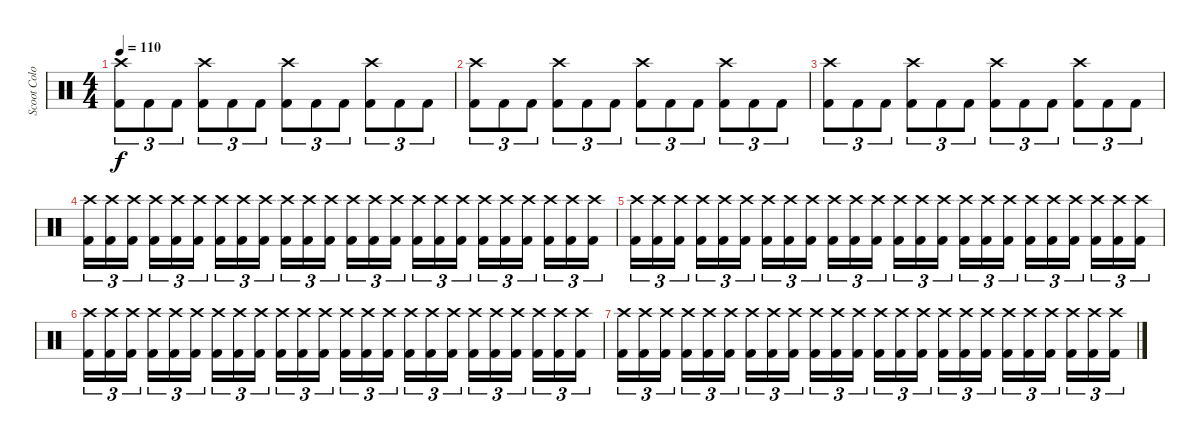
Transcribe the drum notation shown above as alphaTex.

\track ("Scoot Colombus" "Scoot Colo") {instrument percussion}
\staff {score}
\articulation defaults
\ts (4 4)
\tempo 110
\clef neutral
\ks c
("Crash high (hit)" "Kick (hit) 2").8{tu (3 2) dy f} "Kick (hit) 2".8{tu (3 2)} "Kick (hit) 2".8{tu (3 2)} ("Crash high (hit)" "Kick (hit) 2").8{tu (3 2)} "Kick (hit) 2".8{tu (3 2)} "Kick (hit) 2".8{tu (3 2)} ("Crash high (hit)" "Kick (hit) 2").8{tu (3 2)} "Kick (hit) 2".8{tu (3 2)} "Kick (hit) 2".8{tu (3 2)} ("Crash high (hit)" "Kick (hit) 2").8{tu (3 2)} "Kick (hit) 2".8{tu (3 2)} "Kick (hit) 2".8{tu (3 2)} |
("Crash high (hit)" "Kick (hit) 2").8{tu (3 2)} "Kick (hit) 2".8{tu (3 2)} "Kick (hit) 2".8{tu (3 2)} ("Crash high (hit)" "Kick (hit) 2").8{tu (3 2)} "Kick (hit) 2".8{tu (3 2)} "Kick (hit) 2".8{tu (3 2)} ("Crash high (hit)" "Kick (hit) 2").8{tu (3 2)} "Kick (hit) 2".8{tu (3 2)} "Kick (hit) 2".8{tu (3 2)} ("Crash high (hit)" "Kick (hit) 2").8{tu (3 2)} "Kick (hit) 2".8{tu (3 2)} "Kick (hit) 2".8{tu (3 2)} |
("Crash high (hit)" "Kick (hit) 2").8{tu (3 2)} "Kick (hit) 2".8{tu (3 2)} "Kick (hit) 2".8{tu (3 2)} ("Crash high (hit)" "Kick (hit) 2").8{tu (3 2)} "Kick (hit) 2".8{tu (3 2)} "Kick (hit) 2".8{tu (3 2)} ("Crash high (hit)" "Kick (hit) 2").8{tu (3 2)} "Kick (hit) 2".8{tu (3 2)} "Kick (hit) 2".8{tu (3 2)} ("Crash high (hit)" "Kick (hit) 2").8{tu (3 2)} "Kick (hit) 2".8{tu (3 2)} "Kick (hit) 2".8{tu (3 2)} |
("Crash high (hit)" "Kick (hit) 2").16{tu (3 2)} ("Crash high (hit)" "Kick (hit) 2").16{tu (3 2)} ("Crash high (hit)" "Kick (hit) 2").16{tu (3 2) beam splitsecondary} ("Crash high (hit)" "Kick (hit) 2").16{tu (3 2)} ("Crash high (hit)" "Kick (hit) 2").16{tu (3 2)} ("Crash high (hit)" "Kick (hit) 2").16{tu (3 2)} ("Crash high (hit)" "Kick (hit) 2").16{tu (3 2)} ("Crash high (hit)" "Kick (hit) 2").16{tu (3 2)} ("Crash high (hit)" "Kick (hit) 2").16{tu (3 2) beam splitsecondary} ("Crash high (hit)" "Kick (hit) 2").16{tu (3 2)} ("Crash high (hit)" "Kick (hit) 2").16{tu (3 2)} ("Crash high (hit)" "Kick (hit) 2").16{tu (3 2)} ("Crash high (hit)" "Kick (hit) 2").16{tu (3 2)} ("Crash high (hit)" "Kick (hit) 2").16{tu (3 2)} ("Crash high (hit)" "Kick (hit) 2").16{tu (3 2) beam splitsecondary} ("Crash high (hit)" "Kick (hit) 2").16{tu (3 2)} ("Crash high (hit)" "Kick (hit) 2").16{tu (3 2)} ("Crash high (hit)" "Kick (hit) 2").16{tu (3 2)} ("Crash high (hit)" "Kick (hit) 2").16{tu (3 2)} ("Crash high (hit)" "Kick (hit) 2").16{tu (3 2)} ("Crash high (hit)" "Kick (hit) 2").16{tu (3 2) beam splitsecondary} ("Crash high (hit)" "Kick (hit) 2").16{tu (3 2)} ("Crash high (hit)" "Kick (hit) 2").16{tu (3 2)} ("Crash high (hit)" "Kick (hit) 2").16{tu (3 2)} |
("Crash high (hit)" "Kick (hit) 2").16{tu (3 2)} ("Crash high (hit)" "Kick (hit) 2").16{tu (3 2)} ("Crash high (hit)" "Kick (hit) 2").16{tu (3 2) beam splitsecondary} ("Crash high (hit)" "Kick (hit) 2").16{tu (3 2)} ("Crash high (hit)" "Kick (hit) 2").16{tu (3 2)} ("Crash high (hit)" "Kick (hit) 2").16{tu (3 2)} ("Crash high (hit)" "Kick (hit) 2").16{tu (3 2)} ("Crash high (hit)" "Kick (hit) 2").16{tu (3 2)} ("Crash high (hit)" "Kick (hit) 2").16{tu (3 2) beam splitsecondary} ("Crash high (hit)" "Kick (hit) 2").16{tu (3 2)} ("Crash high (hit)" "Kick (hit) 2").16{tu (3 2)} ("Crash high (hit)" "Kick (hit) 2").16{tu (3 2)} ("Crash high (hit)" "Kick (hit) 2").16{tu (3 2)} ("Crash high (hit)" "Kick (hit) 2").16{tu (3 2)} ("Crash high (hit)" "Kick (hit) 2").16{tu (3 2) beam splitsecondary} ("Crash high (hit)" "Kick (hit) 2").16{tu (3 2)} ("Crash high (hit)" "Kick (hit) 2").16{tu (3 2)} ("Crash high (hit)" "Kick (hit) 2").16{tu (3 2)} ("Crash high (hit)" "Kick (hit) 2").16{tu (3 2)} ("Crash high (hit)" "Kick (hit) 2").16{tu (3 2)} ("Crash high (hit)" "Kick (hit) 2").16{tu (3 2) beam splitsecondary} ("Crash high (hit)" "Kick (hit) 2").16{tu (3 2)} ("Crash high (hit)" "Kick (hit) 2").16{tu (3 2)} ("Crash high (hit)" "Kick (hit) 2").16{tu (3 2)} |
("Crash high (hit)" "Kick (hit) 2").16{tu (3 2)} ("Crash high (hit)" "Kick (hit) 2").16{tu (3 2)} ("Crash high (hit)" "Kick (hit) 2").16{tu (3 2) beam splitsecondary} ("Crash high (hit)" "Kick (hit) 2").16{tu (3 2)} ("Crash high (hit)" "Kick (hit) 2").16{tu (3 2)} ("Crash high (hit)" "Kick (hit) 2").16{tu (3 2)} ("Crash high (hit)" "Kick (hit) 2").16{tu (3 2)} ("Crash high (hit)" "Kick (hit) 2").16{tu (3 2)} ("Crash high (hit)" "Kick (hit) 2").16{tu (3 2) beam splitsecondary} ("Crash high (hit)" "Kick (hit) 2").16{tu (3 2)} ("Crash high (hit)" "Kick (hit) 2").16{tu (3 2)} ("Crash high (hit)" "Kick (hit) 2").16{tu (3 2)} ("Crash high (hit)" "Kick (hit) 2").16{tu (3 2)} ("Crash high (hit)" "Kick (hit) 2").16{tu (3 2)} ("Crash high (hit)" "Kick (hit) 2").16{tu (3 2) beam splitsecondary} ("Crash high (hit)" "Kick (hit) 2").16{tu (3 2)} ("Crash high (hit)" "Kick (hit) 2").16{tu (3 2)} ("Crash high (hit)" "Kick (hit) 2").16{tu (3 2)} ("Crash high (hit)" "Kick (hit) 2").16{tu (3 2)} ("Crash high (hit)" "Kick (hit) 2").16{tu (3 2)} ("Crash high (hit)" "Kick (hit) 2").16{tu (3 2) beam splitsecondary} ("Crash high (hit)" "Kick (hit) 2").16{tu (3 2)} ("Crash high (hit)" "Kick (hit) 2").16{tu (3 2)} ("Crash high (hit)" "Kick (hit) 2").16{tu (3 2)} |
("Crash high (hit)" "Kick (hit) 2").16{tu (3 2)} ("Crash high (hit)" "Kick (hit) 2").16{tu (3 2)} ("Crash high (hit)" "Kick (hit) 2").16{tu (3 2) beam splitsecondary} ("Crash high (hit)" "Kick (hit) 2").16{tu (3 2)} ("Crash high (hit)" "Kick (hit) 2").16{tu (3 2)} ("Crash high (hit)" "Kick (hit) 2").16{tu (3 2)} ("Crash high (hit)" "Kick (hit) 2").16{tu (3 2)} ("Crash high (hit)" "Kick (hit) 2").16{tu (3 2)} ("Crash high (hit)" "Kick (hit) 2").16{tu (3 2) beam splitsecondary} ("Crash high (hit)" "Kick (hit) 2").16{tu (3 2)} ("Crash high (hit)" "Kick (hit) 2").16{tu (3 2)} ("Crash high (hit)" "Kick (hit) 2").16{tu (3 2)} ("Crash high (hit)" "Kick (hit) 2").16{tu (3 2)} ("Crash high (hit)" "Kick (hit) 2").16{tu (3 2)} ("Crash high (hit)" "Kick (hit) 2").16{tu (3 2) beam splitsecondary} ("Crash high (hit)" "Kick (hit) 2").16{tu (3 2)} ("Crash high (hit)" "Kick (hit) 2").16{tu (3 2)} ("Crash high (hit)" "Kick (hit) 2").16{tu (3 2)} ("Crash high (hit)" "Kick (hit) 2").16{tu (3 2)} ("Crash high (hit)" "Kick (hit) 2").16{tu (3 2)} ("Crash high (hit)" "Kick (hit) 2").16{tu (3 2) beam splitsecondary} ("Crash high (hit)" "Kick (hit) 2").16{tu (3 2)} ("Crash high (hit)" "Kick (hit) 2").16{tu (3 2)} ("Crash high (hit)" "Kick (hit) 2").16{tu (3 2)}
